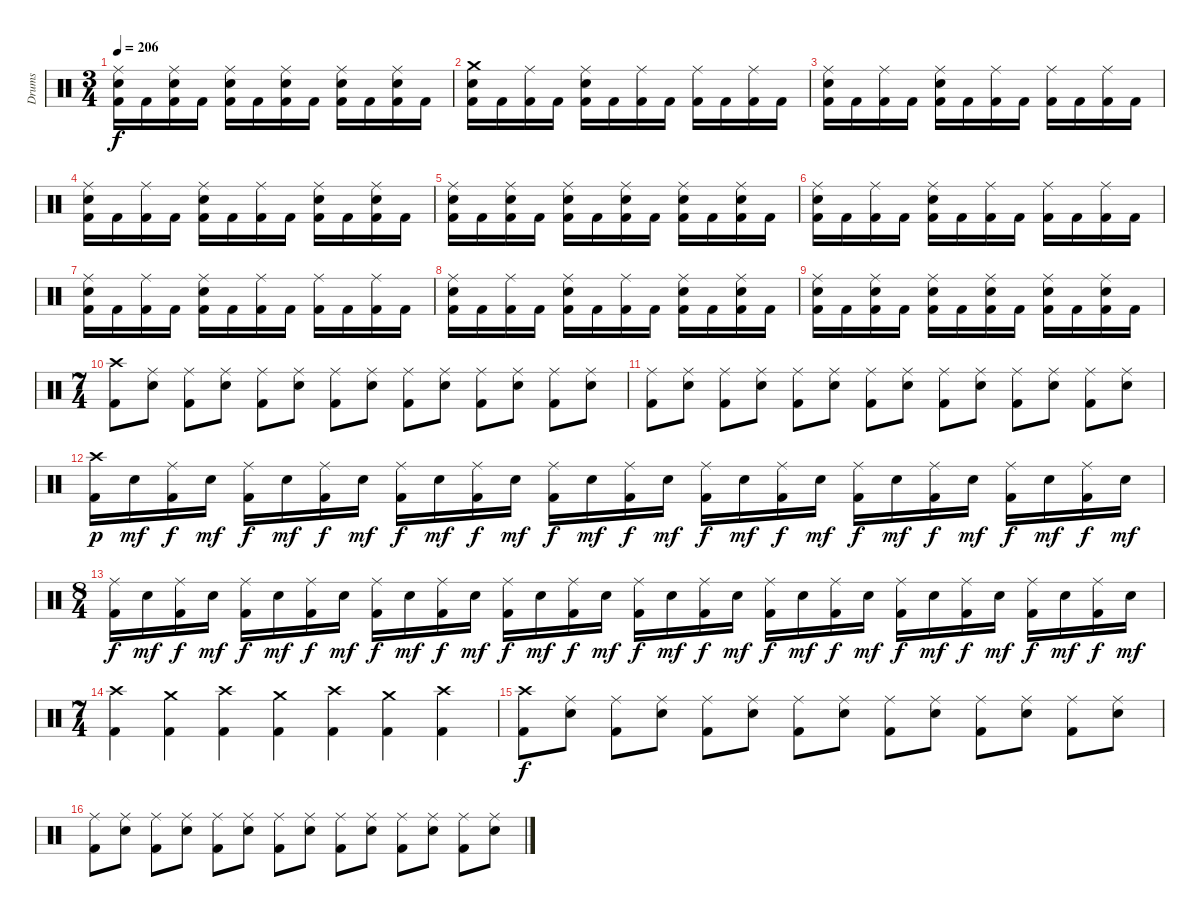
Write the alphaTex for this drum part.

\track ("Drums" "Drums") {instrument percussion}
\staff {score}
\articulation defaults
\ts (3 4)
\tempo 206
\clef neutral
\ks c
("Ride (middle)" "Electric Snare (hit)" "Kick (hit) 2").16{dy f} "Kick (hit) 2".16 ("Ride (middle)" "Electric Snare (hit)" "Kick (hit) 2").16 "Kick (hit) 2".16 ("Ride (middle)" "Electric Snare (hit)" "Kick (hit) 2").16 "Kick (hit) 2".16 ("Ride (middle)" "Electric Snare (hit)" "Kick (hit) 2").16 "Kick (hit) 2".16 ("Ride (middle)" "Electric Snare (hit)" "Kick (hit) 2").16 "Kick (hit) 2".16 ("Ride (middle)" "Electric Snare (hit)" "Kick (hit) 2").16 "Kick (hit) 2".16 |
("Crash medium (hit)" "Electric Snare (hit)" "Kick (hit) 2").16 "Kick (hit) 2".16 ("Ride (middle)" "Kick (hit) 2").16 "Kick (hit) 2".16 ("Ride (middle)" "Electric Snare (hit)" "Kick (hit) 2").16 "Kick (hit) 2".16 ("Ride (middle)" "Kick (hit) 2").16 "Kick (hit) 2".16 ("Ride (middle)" "Kick (hit) 2").16 "Kick (hit) 2".16 ("Ride (middle)" "Kick (hit) 2").16 "Kick (hit) 2".16 |
("Ride (middle)" "Electric Snare (hit)" "Kick (hit) 2").16 "Kick (hit) 2".16 ("Ride (middle)" "Kick (hit) 2").16 "Kick (hit) 2".16 ("Ride (middle)" "Electric Snare (hit)" "Kick (hit) 2").16 "Kick (hit) 2".16 ("Ride (middle)" "Kick (hit) 2").16 "Kick (hit) 2".16 ("Ride (middle)" "Kick (hit) 2").16 "Kick (hit) 2".16 ("Ride (middle)" "Kick (hit) 2").16 "Kick (hit) 2".16 |
("Ride (middle)" "Electric Snare (hit)" "Kick (hit) 2").16 "Kick (hit) 2".16 ("Ride (middle)" "Kick (hit) 2").16 "Kick (hit) 2".16 ("Ride (middle)" "Electric Snare (hit)" "Kick (hit) 2").16 "Kick (hit) 2".16 ("Ride (middle)" "Kick (hit) 2").16 "Kick (hit) 2".16 ("Ride (middle)" "Electric Snare (hit)" "Kick (hit) 2").16 "Kick (hit) 2".16 ("Ride (middle)" "Electric Snare (hit)" "Kick (hit) 2").16 "Kick (hit) 2".16 |
("Ride (middle)" "Electric Snare (hit)" "Kick (hit) 2").16 "Kick (hit) 2".16 ("Ride (middle)" "Electric Snare (hit)" "Kick (hit) 2").16 "Kick (hit) 2".16 ("Ride (middle)" "Electric Snare (hit)" "Kick (hit) 2").16 "Kick (hit) 2".16 ("Ride (middle)" "Electric Snare (hit)" "Kick (hit) 2").16 "Kick (hit) 2".16 ("Ride (middle)" "Electric Snare (hit)" "Kick (hit) 2").16 "Kick (hit) 2".16 ("Ride (middle)" "Electric Snare (hit)" "Kick (hit) 2").16 "Kick (hit) 2".16 |
("Ride (middle)" "Electric Snare (hit)" "Kick (hit) 2").16 "Kick (hit) 2".16 ("Ride (middle)" "Kick (hit) 2").16 "Kick (hit) 2".16 ("Ride (middle)" "Electric Snare (hit)" "Kick (hit) 2").16 "Kick (hit) 2".16 ("Ride (middle)" "Kick (hit) 2").16 "Kick (hit) 2".16 ("Ride (middle)" "Kick (hit) 2").16 "Kick (hit) 2".16 ("Ride (middle)" "Kick (hit) 2").16 "Kick (hit) 2".16 |
("Ride (middle)" "Electric Snare (hit)" "Kick (hit) 2").16 "Kick (hit) 2".16 ("Ride (middle)" "Kick (hit) 2").16 "Kick (hit) 2".16 ("Ride (middle)" "Electric Snare (hit)" "Kick (hit) 2").16 "Kick (hit) 2".16 ("Ride (middle)" "Kick (hit) 2").16 "Kick (hit) 2".16 ("Ride (middle)" "Kick (hit) 2").16 "Kick (hit) 2".16 ("Ride (middle)" "Kick (hit) 2").16 "Kick (hit) 2".16 |
("Ride (middle)" "Electric Snare (hit)" "Kick (hit) 2").16 "Kick (hit) 2".16 ("Ride (middle)" "Kick (hit) 2").16 "Kick (hit) 2".16 ("Ride (middle)" "Electric Snare (hit)" "Kick (hit) 2").16 "Kick (hit) 2".16 ("Ride (middle)" "Kick (hit) 2").16 "Kick (hit) 2".16 ("Ride (middle)" "Electric Snare (hit)" "Kick (hit) 2").16 "Kick (hit) 2".16 ("Ride (middle)" "Electric Snare (hit)" "Kick (hit) 2").16 "Kick (hit) 2".16 |
("Ride (middle)" "Electric Snare (hit)" "Kick (hit) 2").16 "Kick (hit) 2".16 ("Ride (middle)" "Electric Snare (hit)" "Kick (hit) 2").16 "Kick (hit) 2".16 ("Ride (middle)" "Electric Snare (hit)" "Kick (hit) 2").16 "Kick (hit) 2".16 ("Ride (middle)" "Electric Snare (hit)" "Kick (hit) 2").16 "Kick (hit) 2".16 ("Ride (middle)" "Electric Snare (hit)" "Kick (hit) 2").16 "Kick (hit) 2".16 ("Ride (middle)" "Electric Snare (hit)" "Kick (hit) 2").16 "Kick (hit) 2".16 |
\ts (7 4)
("Crash high (hit)" "Kick (hit) 2").8 ("Ride (middle)" "Electric Snare (hit)").8 ("Ride (middle)" "Kick (hit) 2").8 ("Ride (middle)" "Electric Snare (hit)").8 ("Ride (middle)" "Kick (hit) 2").8 ("Ride (middle)" "Electric Snare (hit)").8 ("Ride (middle)" "Kick (hit) 2").8 ("Ride (middle)" "Electric Snare (hit)").8 ("Ride (middle)" "Kick (hit) 2").8 ("Ride (middle)" "Electric Snare (hit)").8 ("Ride (middle)" "Kick (hit) 2").8 ("Ride (middle)" "Electric Snare (hit)").8 ("Ride (middle)" "Kick (hit) 2").8 ("Ride (middle)" "Electric Snare (hit)").8 |
("Ride (middle)" "Kick (hit) 2").8 ("Ride (middle)" "Electric Snare (hit)").8 ("Ride (middle)" "Kick (hit) 2").8 ("Ride (middle)" "Electric Snare (hit)").8 ("Ride (middle)" "Kick (hit) 2").8 ("Ride (middle)" "Electric Snare (hit)").8 ("Ride (middle)" "Kick (hit) 2").8 ("Ride (middle)" "Electric Snare (hit)").8 ("Ride (middle)" "Kick (hit) 2").8 ("Ride (middle)" "Electric Snare (hit)").8 ("Ride (middle)" "Kick (hit) 2").8 ("Ride (middle)" "Electric Snare (hit)").8 ("Ride (middle)" "Kick (hit) 2").8 ("Ride (middle)" "Electric Snare (hit)").8 |
("Crash high (hit)" "Kick (hit) 2").16{dy p} "Electric Snare (hit)".16{dy mf} ("Ride (middle)" "Kick (hit) 2").16{dy f} "Electric Snare (hit)".16{dy mf} ("Ride (middle)" "Kick (hit) 2").16{dy f} "Electric Snare (hit)".16{dy mf} ("Ride (middle)" "Kick (hit) 2").16{dy f} "Electric Snare (hit)".16{dy mf} ("Ride (middle)" "Kick (hit) 2").16{dy f} "Electric Snare (hit)".16{dy mf} ("Ride (middle)" "Kick (hit) 2").16{dy f} "Electric Snare (hit)".16{dy mf} ("Ride (middle)" "Kick (hit) 2").16{dy f} "Electric Snare (hit)".16{dy mf} ("Ride (middle)" "Kick (hit) 2").16{dy f} "Electric Snare (hit)".16{dy mf} ("Ride (middle)" "Kick (hit) 2").16{dy f} "Electric Snare (hit)".16{dy mf} ("Ride (middle)" "Kick (hit) 2").16{dy f} "Electric Snare (hit)".16{dy mf} ("Ride (middle)" "Kick (hit) 2").16{dy f} "Electric Snare (hit)".16{dy mf} ("Ride (middle)" "Kick (hit) 2").16{dy f} "Electric Snare (hit)".16{dy mf} ("Ride (middle)" "Kick (hit) 2").16{dy f} "Electric Snare (hit)".16{dy mf} ("Ride (middle)" "Kick (hit) 2").16{dy f} "Electric Snare (hit)".16{dy mf} |
\ts (8 4)
("Ride (middle)" "Kick (hit) 2").16{dy f} "Electric Snare (hit)".16{dy mf} ("Ride (middle)" "Kick (hit) 2").16{dy f} "Electric Snare (hit)".16{dy mf} ("Ride (middle)" "Kick (hit) 2").16{dy f} "Electric Snare (hit)".16{dy mf} ("Ride (middle)" "Kick (hit) 2").16{dy f} "Electric Snare (hit)".16{dy mf} ("Ride (middle)" "Kick (hit) 2").16{dy f} "Electric Snare (hit)".16{dy mf} ("Ride (middle)" "Kick (hit) 2").16{dy f} "Electric Snare (hit)".16{dy mf} ("Ride (middle)" "Kick (hit) 2").16{dy f} "Electric Snare (hit)".16{dy mf} ("Ride (middle)" "Kick (hit) 2").16{dy f} "Electric Snare (hit)".16{dy mf} ("Ride (middle)" "Kick (hit) 2").16{dy f} "Electric Snare (hit)".16{dy mf} ("Ride (middle)" "Kick (hit) 2").16{dy f} "Electric Snare (hit)".16{dy mf} ("Ride (middle)" "Kick (hit) 2").16{dy f} "Electric Snare (hit)".16{dy mf} ("Ride (middle)" "Kick (hit) 2").16{dy f} "Electric Snare (hit)".16{dy mf} ("Ride (middle)" "Kick (hit) 2").16{dy f} "Electric Snare (hit)".16{dy mf} ("Ride (middle)" "Kick (hit) 2").16{dy f} "Electric Snare (hit)".16{dy mf} ("Ride (middle)" "Kick (hit) 2").16{dy f} "Electric Snare (hit)".16{dy mf} ("Ride (middle)" "Kick (hit) 2").16{dy f} "Electric Snare (hit)".16{dy mf} |
\ts (7 4)
("Crash high (hit)" "Kick (hit) 2").4 ("Crash medium (hit)" "Kick (hit) 2").4 ("Crash high (hit)" "Kick (hit) 2").4 ("Crash medium (hit)" "Kick (hit) 2").4 ("Crash high (hit)" "Kick (hit) 2").4 ("Crash medium (hit)" "Kick (hit) 2").4 ("Crash high (hit)" "Kick (hit) 2").4 |
("Crash high (hit)" "Kick (hit) 2").8{dy f} ("Ride (middle)" "Electric Snare (hit)").8 ("Ride (middle)" "Kick (hit) 2").8 ("Ride (middle)" "Electric Snare (hit)").8 ("Ride (middle)" "Kick (hit) 2").8 ("Ride (middle)" "Electric Snare (hit)").8 ("Ride (middle)" "Kick (hit) 2").8 ("Ride (middle)" "Electric Snare (hit)").8 ("Ride (middle)" "Kick (hit) 2").8 ("Ride (middle)" "Electric Snare (hit)").8 ("Ride (middle)" "Kick (hit) 2").8 ("Ride (middle)" "Electric Snare (hit)").8 ("Ride (middle)" "Kick (hit) 2").8 ("Ride (middle)" "Electric Snare (hit)").8 |
("Ride (middle)" "Kick (hit) 2").8 ("Ride (middle)" "Electric Snare (hit)").8 ("Ride (middle)" "Kick (hit) 2").8 ("Ride (middle)" "Electric Snare (hit)").8 ("Ride (middle)" "Kick (hit) 2").8 ("Ride (middle)" "Electric Snare (hit)").8 ("Ride (middle)" "Kick (hit) 2").8 ("Ride (middle)" "Electric Snare (hit)").8 ("Ride (middle)" "Kick (hit) 2").8 ("Ride (middle)" "Electric Snare (hit)").8 ("Ride (middle)" "Kick (hit) 2").8 ("Ride (middle)" "Electric Snare (hit)").8 ("Ride (middle)" "Kick (hit) 2").8 ("Ride (middle)" "Electric Snare (hit)").8
